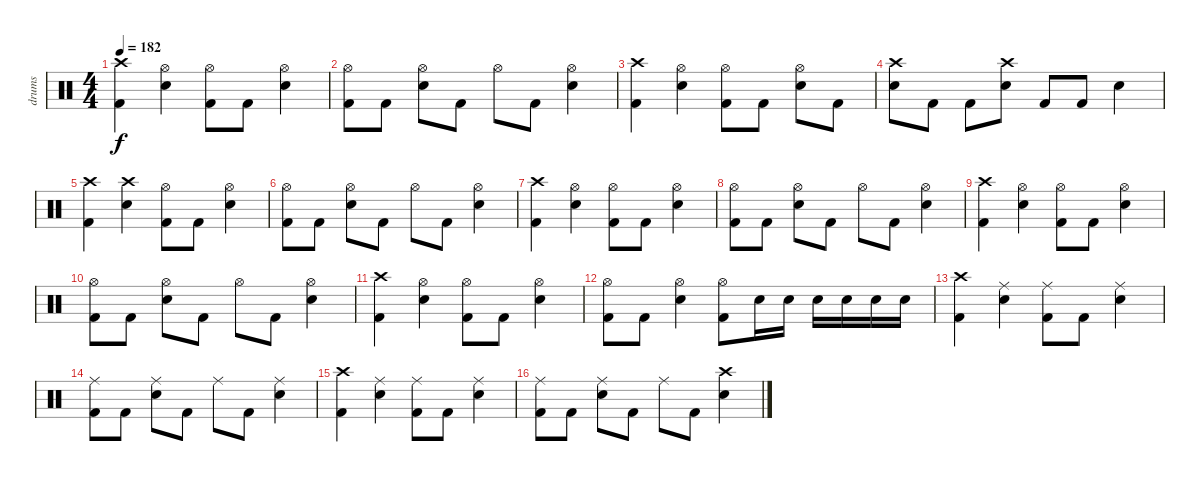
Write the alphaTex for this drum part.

\track ("drums" "drums") {instrument percussion}
\staff {score}
\articulation defaults
\ts (4 4)
\tempo 182
\clef neutral
\ks c
("Crash high (hit)" "Kick (hit) 2").4{dy f} ("Hi-Hat (open)" "Electric Snare (hit)").4 ("Hi-Hat (open)" "Kick (hit) 2").8 "Kick (hit) 2".8 ("Hi-Hat (open)" "Electric Snare (hit)").4 |
("Hi-Hat (open)" "Kick (hit) 2").8 "Kick (hit) 2".8 ("Hi-Hat (open)" "Electric Snare (hit)").8 "Kick (hit) 2".8 "Hi-Hat (open)".8 "Kick (hit) 2".8 ("Hi-Hat (open)" "Electric Snare (hit)").4 |
("Crash high (hit)" "Kick (hit) 2").4 ("Hi-Hat (open)" "Electric Snare (hit)").4 ("Hi-Hat (open)" "Kick (hit) 2").8 "Kick (hit) 2".8 ("Hi-Hat (open)" "Electric Snare (hit)").8 "Kick (hit) 2".8 |
("Crash high (hit)" "Electric Snare (hit)").8 "Kick (hit) 2".8 "Kick (hit) 2".8 ("Crash high (hit)" "Electric Snare (hit)").8 "Kick (hit) 2".8 "Kick (hit) 2".8 "Electric Snare (hit)".4 |
("Crash high (hit)" "Kick (hit) 2").4 ("Crash high (hit)" "Electric Snare (hit)").4 ("Hi-Hat (open)" "Kick (hit) 2").8 "Kick (hit) 2".8 ("Hi-Hat (open)" "Electric Snare (hit)").4 |
("Hi-Hat (open)" "Kick (hit) 2").8 "Kick (hit) 2".8 ("Hi-Hat (open)" "Electric Snare (hit)").8 "Kick (hit) 2".8 "Hi-Hat (open)".8 "Kick (hit) 2".8 ("Hi-Hat (open)" "Electric Snare (hit)").4 |
("Crash high (hit)" "Kick (hit) 2").4 ("Hi-Hat (open)" "Electric Snare (hit)").4 ("Hi-Hat (open)" "Kick (hit) 2").8 "Kick (hit) 2".8 ("Hi-Hat (open)" "Electric Snare (hit)").4 |
("Hi-Hat (open)" "Kick (hit) 2").8 "Kick (hit) 2".8 ("Hi-Hat (open)" "Electric Snare (hit)").8 "Kick (hit) 2".8 "Hi-Hat (open)".8 "Kick (hit) 2".8 ("Hi-Hat (open)" "Electric Snare (hit)").4 |
("Crash high (hit)" "Kick (hit) 2").4 ("Hi-Hat (open)" "Electric Snare (hit)").4 ("Hi-Hat (open)" "Kick (hit) 2").8 "Kick (hit) 2".8 ("Hi-Hat (open)" "Electric Snare (hit)").4 |
("Hi-Hat (open)" "Kick (hit) 2").8 "Kick (hit) 2".8 ("Hi-Hat (open)" "Electric Snare (hit)").8 "Kick (hit) 2".8 "Hi-Hat (open)".8 "Kick (hit) 2".8 ("Hi-Hat (open)" "Electric Snare (hit)").4 |
("Crash high (hit)" "Kick (hit) 2").4 ("Hi-Hat (open)" "Electric Snare (hit)").4 ("Hi-Hat (open)" "Kick (hit) 2").8 "Kick (hit) 2".8 ("Hi-Hat (open)" "Electric Snare (hit)").4 |
("Hi-Hat (open)" "Kick (hit) 2").8 "Kick (hit) 2".8 ("Hi-Hat (open)" "Electric Snare (hit)").4 ("Hi-Hat (open)" "Kick (hit) 2").8 "Electric Snare (hit)".16 "Electric Snare (hit)".16 "Electric Snare (hit)".16 "Electric Snare (hit)".16 "Electric Snare (hit)".16 "Electric Snare (hit)".16 |
("Crash high (hit)" "Kick (hit) 2").4 ("Ride (middle)" "Electric Snare (hit)").4 ("Ride (middle)" "Kick (hit) 2").8 "Kick (hit) 2".8 ("Ride (middle)" "Electric Snare (hit)").4 |
("Ride (middle)" "Kick (hit) 2").8 "Kick (hit) 2".8 ("Ride (middle)" "Electric Snare (hit)").8 "Kick (hit) 2".8 "Ride (middle)".8 "Kick (hit) 2".8 ("Ride (middle)" "Electric Snare (hit)").4 |
("Crash high (hit)" "Kick (hit) 2").4 ("Ride (middle)" "Electric Snare (hit)").4 ("Ride (middle)" "Kick (hit) 2").8 "Kick (hit) 2".8 ("Ride (middle)" "Electric Snare (hit)").4 |
("Ride (middle)" "Kick (hit) 2").8 "Kick (hit) 2".8 ("Ride (middle)" "Electric Snare (hit)").8 "Kick (hit) 2".8 "Ride (middle)".8 "Kick (hit) 2".8 ("Crash high (hit)" "Electric Snare (hit)").4
